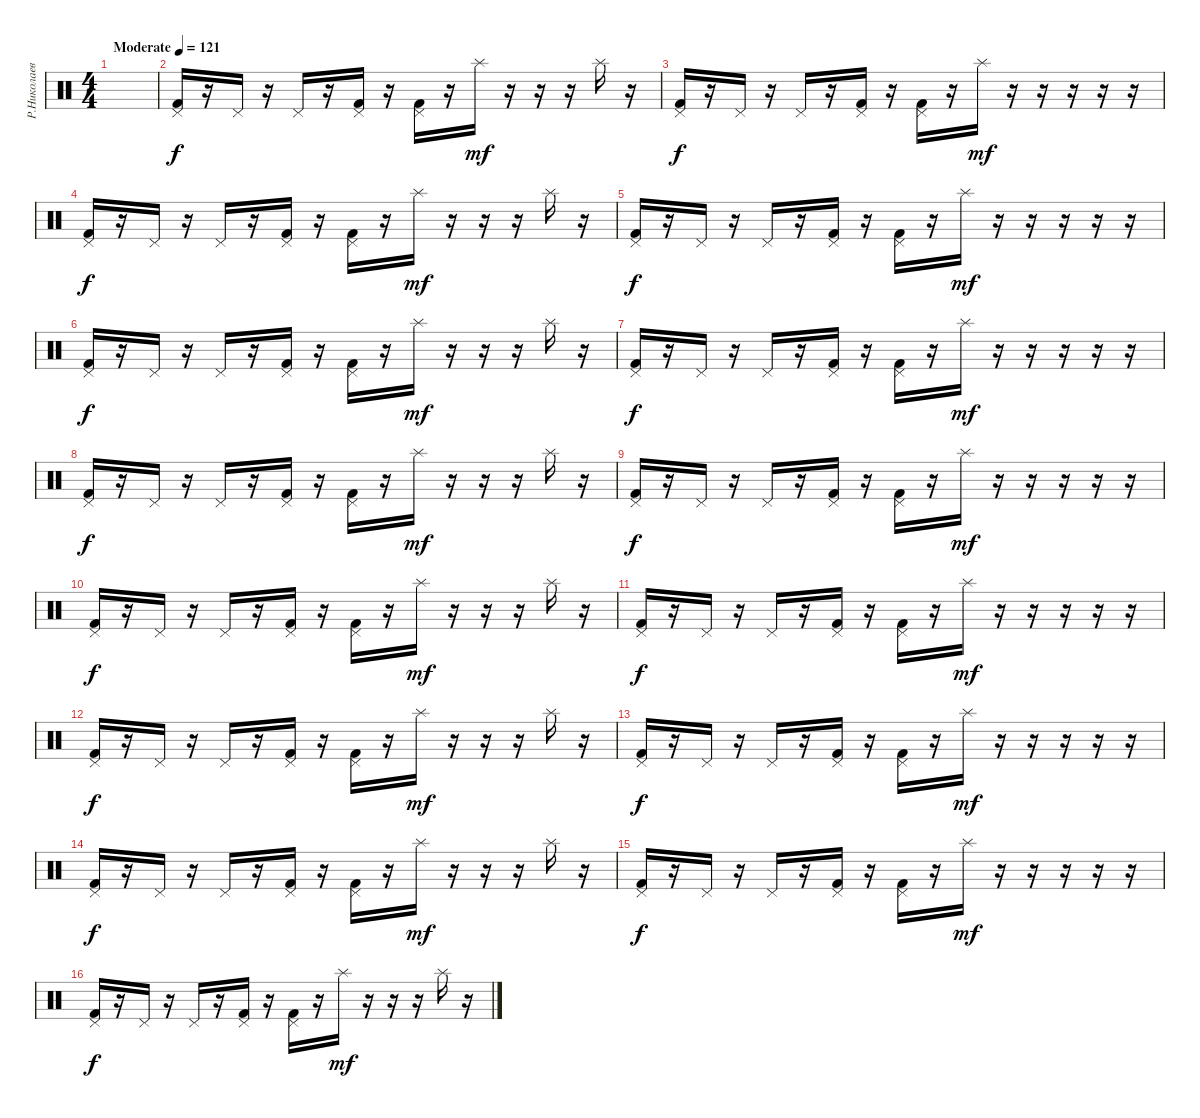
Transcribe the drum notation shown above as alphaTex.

\track ("Р.Николаев" "Р.Николаев") {instrument percussion}
\staff {score}
\articulation defaults
\ts (4 4)
\tempo (121 "Moderate")
\clef neutral
\ks c
|
("Pedal Hi-Hat (hit)" "Kick (hit) 2").16 r.16 "Pedal Hi-Hat (hit)".16 r.16 "Pedal Hi-Hat (hit)".16 r.16 ("Pedal Hi-Hat (hit)" "Kick (hit) 2").16 r.16 ("Pedal Hi-Hat (hit)" "Kick (hit) 2").16 r.16 "Splash (hit)".16{dy mf} r.16 r.16 r.16 "Splash (hit)".16 r.16 |
("Pedal Hi-Hat (hit)" "Kick (hit) 2").16{dy f} r.16 "Pedal Hi-Hat (hit)".16 r.16 "Pedal Hi-Hat (hit)".16 r.16 ("Pedal Hi-Hat (hit)" "Kick (hit) 2").16 r.16 ("Pedal Hi-Hat (hit)" "Kick (hit) 2").16 r.16 "Splash (hit)".16{dy mf} r.16 r.16 r.16 r.16 r.16 |
("Pedal Hi-Hat (hit)" "Kick (hit) 2").16{dy f} r.16 "Pedal Hi-Hat (hit)".16 r.16 "Pedal Hi-Hat (hit)".16 r.16 ("Pedal Hi-Hat (hit)" "Kick (hit) 2").16 r.16 ("Pedal Hi-Hat (hit)" "Kick (hit) 2").16 r.16 "Splash (hit)".16{dy mf} r.16 r.16 r.16 "Splash (hit)".16 r.16 |
("Pedal Hi-Hat (hit)" "Kick (hit) 2").16{dy f} r.16 "Pedal Hi-Hat (hit)".16 r.16 "Pedal Hi-Hat (hit)".16 r.16 ("Pedal Hi-Hat (hit)" "Kick (hit) 2").16 r.16 ("Pedal Hi-Hat (hit)" "Kick (hit) 2").16 r.16 "Splash (hit)".16{dy mf} r.16 r.16 r.16 r.16 r.16 |
("Pedal Hi-Hat (hit)" "Kick (hit) 2").16{dy f} r.16 "Pedal Hi-Hat (hit)".16 r.16 "Pedal Hi-Hat (hit)".16 r.16 ("Pedal Hi-Hat (hit)" "Kick (hit) 2").16 r.16 ("Pedal Hi-Hat (hit)" "Kick (hit) 2").16 r.16 "Splash (hit)".16{dy mf} r.16 r.16 r.16 "Splash (hit)".16 r.16 |
("Pedal Hi-Hat (hit)" "Kick (hit) 2").16{dy f} r.16 "Pedal Hi-Hat (hit)".16 r.16 "Pedal Hi-Hat (hit)".16 r.16 ("Pedal Hi-Hat (hit)" "Kick (hit) 2").16 r.16 ("Pedal Hi-Hat (hit)" "Kick (hit) 2").16 r.16 "Splash (hit)".16{dy mf} r.16 r.16 r.16 r.16 r.16 |
("Pedal Hi-Hat (hit)" "Kick (hit) 2").16{dy f} r.16 "Pedal Hi-Hat (hit)".16 r.16 "Pedal Hi-Hat (hit)".16 r.16 ("Pedal Hi-Hat (hit)" "Kick (hit) 2").16 r.16 ("Pedal Hi-Hat (hit)" "Kick (hit) 2").16 r.16 "Splash (hit)".16{dy mf} r.16 r.16 r.16 "Splash (hit)".16 r.16 |
("Pedal Hi-Hat (hit)" "Kick (hit) 2").16{dy f} r.16 "Pedal Hi-Hat (hit)".16 r.16 "Pedal Hi-Hat (hit)".16 r.16 ("Pedal Hi-Hat (hit)" "Kick (hit) 2").16 r.16 ("Pedal Hi-Hat (hit)" "Kick (hit) 2").16 r.16 "Splash (hit)".16{dy mf} r.16 r.16 r.16 r.16 r.16 |
("Pedal Hi-Hat (hit)" "Kick (hit) 2").16{dy f} r.16 "Pedal Hi-Hat (hit)".16 r.16 "Pedal Hi-Hat (hit)".16 r.16 ("Pedal Hi-Hat (hit)" "Kick (hit) 2").16 r.16 ("Pedal Hi-Hat (hit)" "Kick (hit) 2").16 r.16 "Splash (hit)".16{dy mf} r.16 r.16 r.16 "Splash (hit)".16 r.16 |
("Pedal Hi-Hat (hit)" "Kick (hit) 2").16{dy f} r.16 "Pedal Hi-Hat (hit)".16 r.16 "Pedal Hi-Hat (hit)".16 r.16 ("Pedal Hi-Hat (hit)" "Kick (hit) 2").16 r.16 ("Pedal Hi-Hat (hit)" "Kick (hit) 2").16 r.16 "Splash (hit)".16{dy mf} r.16 r.16 r.16 r.16 r.16 |
("Pedal Hi-Hat (hit)" "Kick (hit) 2").16{dy f} r.16 "Pedal Hi-Hat (hit)".16 r.16 "Pedal Hi-Hat (hit)".16 r.16 ("Pedal Hi-Hat (hit)" "Kick (hit) 2").16 r.16 ("Pedal Hi-Hat (hit)" "Kick (hit) 2").16 r.16 "Splash (hit)".16{dy mf} r.16 r.16 r.16 "Splash (hit)".16 r.16 |
("Pedal Hi-Hat (hit)" "Kick (hit) 2").16{dy f} r.16 "Pedal Hi-Hat (hit)".16 r.16 "Pedal Hi-Hat (hit)".16 r.16 ("Pedal Hi-Hat (hit)" "Kick (hit) 2").16 r.16 ("Pedal Hi-Hat (hit)" "Kick (hit) 2").16 r.16 "Splash (hit)".16{dy mf} r.16 r.16 r.16 r.16 r.16 |
("Pedal Hi-Hat (hit)" "Kick (hit) 2").16{dy f} r.16 "Pedal Hi-Hat (hit)".16 r.16 "Pedal Hi-Hat (hit)".16 r.16 ("Pedal Hi-Hat (hit)" "Kick (hit) 2").16 r.16 ("Pedal Hi-Hat (hit)" "Kick (hit) 2").16 r.16 "Splash (hit)".16{dy mf} r.16 r.16 r.16 "Splash (hit)".16 r.16 |
("Pedal Hi-Hat (hit)" "Kick (hit) 2").16{dy f} r.16 "Pedal Hi-Hat (hit)".16 r.16 "Pedal Hi-Hat (hit)".16 r.16 ("Pedal Hi-Hat (hit)" "Kick (hit) 2").16 r.16 ("Pedal Hi-Hat (hit)" "Kick (hit) 2").16 r.16 "Splash (hit)".16{dy mf} r.16 r.16 r.16 r.16 r.16 |
("Pedal Hi-Hat (hit)" "Kick (hit) 2").16{dy f} r.16 "Pedal Hi-Hat (hit)".16 r.16 "Pedal Hi-Hat (hit)".16 r.16 ("Pedal Hi-Hat (hit)" "Kick (hit) 2").16 r.16 ("Pedal Hi-Hat (hit)" "Kick (hit) 2").16 r.16 "Splash (hit)".16{dy mf} r.16 r.16 r.16 "Splash (hit)".16 r.16
